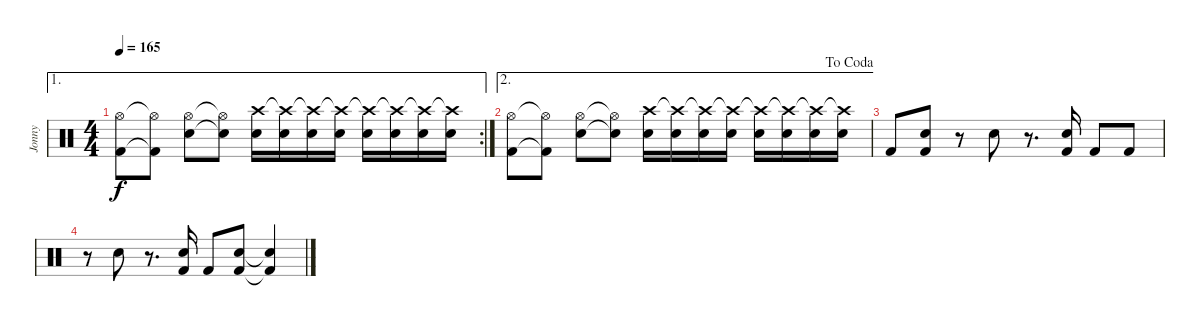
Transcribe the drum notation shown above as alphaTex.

\track ("Jonny" "Jonny") {instrument percussion}
\staff {score}
\articulation defaults
\ae 1
\rc 2
\ts (4 4)
\tempo 165
\clef neutral
\ks c
("Hi-Hat (open)" "Kick (hit) 2").8{dy f} ("Hi-Hat (open)"{t} "Kick (hit) 2"{t}).8 ("Hi-Hat (open)" "Snare (hit) 2").8 ("Hi-Hat (open)"{t} "Snare (hit) 2"{t}).8 ("Crash high (hit)" "Snare (hit) 2").16 ("Crash high (hit)"{t} "Snare (hit) 2").16 ("Crash high (hit)"{t} "Snare (hit) 2").16 ("Crash high (hit)"{t} "Snare (hit) 2").16 ("Crash high (hit)"{t} "Snare (hit) 2").16 ("Crash high (hit)"{t} "Snare (hit) 2").16 ("Crash high (hit)"{t} "Snare (hit) 2").16 ("Crash high (hit)"{t} "Snare (hit) 2").16 |
\ae 2
\jump dacoda
("Hi-Hat (open)" "Kick (hit) 2").8 ("Hi-Hat (open)"{t} "Kick (hit) 2"{t}).8 ("Hi-Hat (open)" "Snare (hit) 2").8 ("Hi-Hat (open)"{t} "Snare (hit) 2"{t}).8 ("Crash high (hit)" "Snare (hit) 2").16 ("Crash high (hit)"{t} "Snare (hit) 2").16 ("Crash high (hit)"{t} "Snare (hit) 2").16 ("Crash high (hit)"{t} "Snare (hit) 2").16 ("Crash high (hit)"{t} "Snare (hit) 2").16 ("Crash high (hit)"{t} "Snare (hit) 2").16 ("Crash high (hit)"{t} "Snare (hit) 2").16 ("Crash high (hit)"{t} "Snare (hit) 2").16 |
"Kick (hit) 2".8 ("Snare (hit) 2" "Kick (hit) 2").8 r.8 "Snare (hit) 2".8 r.8{d} ("Snare (hit) 2" "Kick (hit) 2").16 "Kick (hit) 2".8 "Kick (hit) 2".8 |
r.8 "Snare (hit) 2".8 r.8{d} ("Snare (hit) 2" "Kick (hit) 2").16 "Kick (hit) 2".8 ("Snare (hit) 2" "Kick (hit) 2").8 ("Snare (hit) 2"{t} "Kick (hit) 2"{t}).4
